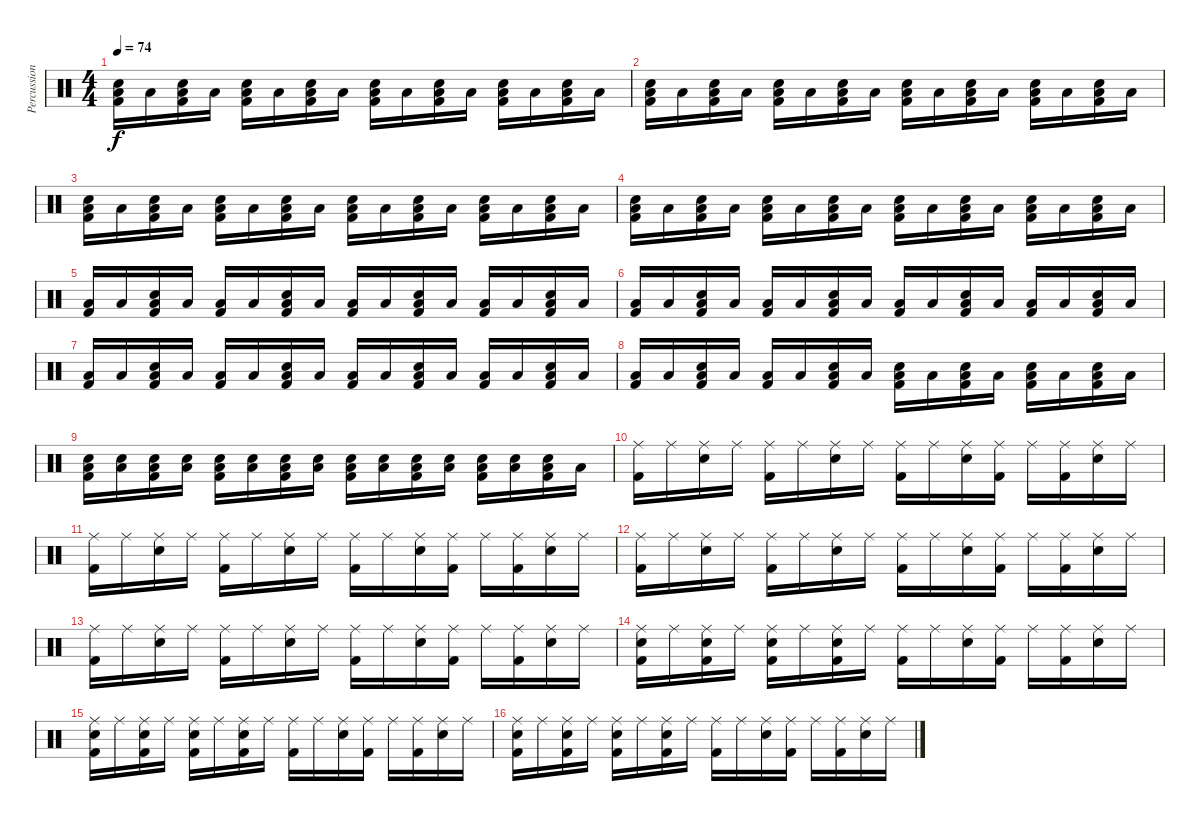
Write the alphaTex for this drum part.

\track ("Percussion" "Percussion") {instrument percussion}
\staff {score}
\articulation defaults
\ts (4 4)
\tempo 74
\clef neutral
\ks c
("Low Floor Tom (hit)" "Kick (hit) 2" "Electric Snare (hit)").16{dy f} "Low Floor Tom (hit)".16 ("Low Floor Tom (hit)" "Kick (hit) 2" "Electric Snare (hit)").16 "Low Floor Tom (hit)".16 ("Low Floor Tom (hit)" "Kick (hit) 2" "Electric Snare (hit)").16 "Low Floor Tom (hit)".16 ("Low Floor Tom (hit)" "Kick (hit) 2" "Electric Snare (hit)").16 "Low Floor Tom (hit)".16 ("Low Floor Tom (hit)" "Kick (hit) 2" "Electric Snare (hit)").16 "Low Floor Tom (hit)".16 ("Low Floor Tom (hit)" "Kick (hit) 2" "Electric Snare (hit)").16 "Low Floor Tom (hit)".16 ("Low Floor Tom (hit)" "Kick (hit) 2" "Electric Snare (hit)").16 "Low Floor Tom (hit)".16 ("Low Floor Tom (hit)" "Kick (hit) 2" "Electric Snare (hit)").16 "Low Floor Tom (hit)".16 |
("Low Floor Tom (hit)" "Kick (hit) 2" "Electric Snare (hit)").16 "Low Floor Tom (hit)".16 ("Low Floor Tom (hit)" "Kick (hit) 2" "Electric Snare (hit)").16 "Low Floor Tom (hit)".16 ("Low Floor Tom (hit)" "Kick (hit) 2" "Electric Snare (hit)").16 "Low Floor Tom (hit)".16 ("Low Floor Tom (hit)" "Kick (hit) 2" "Electric Snare (hit)").16 "Low Floor Tom (hit)".16 ("Low Floor Tom (hit)" "Kick (hit) 2" "Electric Snare (hit)").16 "Low Floor Tom (hit)".16 ("Low Floor Tom (hit)" "Kick (hit) 2" "Electric Snare (hit)").16 "Low Floor Tom (hit)".16 ("Low Floor Tom (hit)" "Kick (hit) 2" "Electric Snare (hit)").16 "Low Floor Tom (hit)".16 ("Low Floor Tom (hit)" "Kick (hit) 2" "Electric Snare (hit)").16 "Low Floor Tom (hit)".16 |
("Low Floor Tom (hit)" "Kick (hit) 2" "Electric Snare (hit)").16 "Low Floor Tom (hit)".16 ("Low Floor Tom (hit)" "Kick (hit) 2" "Electric Snare (hit)").16 "Low Floor Tom (hit)".16 ("Low Floor Tom (hit)" "Kick (hit) 2" "Electric Snare (hit)").16 "Low Floor Tom (hit)".16 ("Low Floor Tom (hit)" "Kick (hit) 2" "Electric Snare (hit)").16 "Low Floor Tom (hit)".16 ("Low Floor Tom (hit)" "Kick (hit) 2" "Electric Snare (hit)").16 "Low Floor Tom (hit)".16 ("Low Floor Tom (hit)" "Kick (hit) 2" "Electric Snare (hit)").16 "Low Floor Tom (hit)".16 ("Low Floor Tom (hit)" "Kick (hit) 2" "Electric Snare (hit)").16 "Low Floor Tom (hit)".16 ("Low Floor Tom (hit)" "Kick (hit) 2" "Electric Snare (hit)").16 "Low Floor Tom (hit)".16 |
("Low Floor Tom (hit)" "Kick (hit) 2" "Electric Snare (hit)").16 "Low Floor Tom (hit)".16 ("Low Floor Tom (hit)" "Kick (hit) 2" "Electric Snare (hit)").16 "Low Floor Tom (hit)".16 ("Low Floor Tom (hit)" "Kick (hit) 2" "Electric Snare (hit)").16 "Low Floor Tom (hit)".16 ("Low Floor Tom (hit)" "Kick (hit) 2" "Electric Snare (hit)").16 "Low Floor Tom (hit)".16 ("Low Floor Tom (hit)" "Kick (hit) 2" "Electric Snare (hit)").16 "Low Floor Tom (hit)".16 ("Low Floor Tom (hit)" "Kick (hit) 2" "Electric Snare (hit)").16 "Low Floor Tom (hit)".16 ("Low Floor Tom (hit)" "Kick (hit) 2" "Electric Snare (hit)").16 "Low Floor Tom (hit)".16 ("Low Floor Tom (hit)" "Kick (hit) 2" "Electric Snare (hit)").16 "Low Floor Tom (hit)".16 |
("Low Floor Tom (hit)" "Kick (hit) 2").16 "Low Floor Tom (hit)".16 ("Low Floor Tom (hit)" "Kick (hit) 2" "Electric Snare (hit)").16 "Low Floor Tom (hit)".16 ("Low Floor Tom (hit)" "Kick (hit) 2").16 "Low Floor Tom (hit)".16 ("Low Floor Tom (hit)" "Kick (hit) 2" "Electric Snare (hit)").16 "Low Floor Tom (hit)".16 ("Low Floor Tom (hit)" "Kick (hit) 2").16 "Low Floor Tom (hit)".16 ("Low Floor Tom (hit)" "Kick (hit) 2" "Electric Snare (hit)").16 "Low Floor Tom (hit)".16 ("Low Floor Tom (hit)" "Kick (hit) 2").16 "Low Floor Tom (hit)".16 ("Low Floor Tom (hit)" "Kick (hit) 2" "Electric Snare (hit)").16 "Low Floor Tom (hit)".16 |
("Low Floor Tom (hit)" "Kick (hit) 2").16 "Low Floor Tom (hit)".16 ("Low Floor Tom (hit)" "Kick (hit) 2" "Electric Snare (hit)").16 "Low Floor Tom (hit)".16 ("Low Floor Tom (hit)" "Kick (hit) 2").16 "Low Floor Tom (hit)".16 ("Low Floor Tom (hit)" "Kick (hit) 2" "Electric Snare (hit)").16 "Low Floor Tom (hit)".16 ("Low Floor Tom (hit)" "Kick (hit) 2").16 "Low Floor Tom (hit)".16 ("Low Floor Tom (hit)" "Kick (hit) 2" "Electric Snare (hit)").16 "Low Floor Tom (hit)".16 ("Low Floor Tom (hit)" "Kick (hit) 2").16 "Low Floor Tom (hit)".16 ("Low Floor Tom (hit)" "Kick (hit) 2" "Electric Snare (hit)").16 "Low Floor Tom (hit)".16 |
("Low Floor Tom (hit)" "Kick (hit) 2").16 "Low Floor Tom (hit)".16 ("Low Floor Tom (hit)" "Kick (hit) 2" "Electric Snare (hit)").16 "Low Floor Tom (hit)".16 ("Low Floor Tom (hit)" "Kick (hit) 2").16 "Low Floor Tom (hit)".16 ("Low Floor Tom (hit)" "Kick (hit) 2" "Electric Snare (hit)").16 "Low Floor Tom (hit)".16 ("Low Floor Tom (hit)" "Kick (hit) 2").16 "Low Floor Tom (hit)".16 ("Low Floor Tom (hit)" "Kick (hit) 2" "Electric Snare (hit)").16 "Low Floor Tom (hit)".16 ("Low Floor Tom (hit)" "Kick (hit) 2").16 "Low Floor Tom (hit)".16 ("Low Floor Tom (hit)" "Kick (hit) 2" "Electric Snare (hit)").16 "Low Floor Tom (hit)".16 |
("Low Floor Tom (hit)" "Kick (hit) 2").16 "Low Floor Tom (hit)".16 ("Low Floor Tom (hit)" "Kick (hit) 2" "Electric Snare (hit)").16 "Low Floor Tom (hit)".16 ("Low Floor Tom (hit)" "Kick (hit) 2").16 "Low Floor Tom (hit)".16 ("Low Floor Tom (hit)" "Kick (hit) 2" "Electric Snare (hit)").16 "Low Floor Tom (hit)".16 ("Low Floor Tom (hit)" "Kick (hit) 2" "Electric Snare (hit)").16 "Low Floor Tom (hit)".16 ("Low Floor Tom (hit)" "Kick (hit) 2" "Electric Snare (hit)").16 "Low Floor Tom (hit)".16 ("Low Floor Tom (hit)" "Kick (hit) 2" "Electric Snare (hit)").16 "Low Floor Tom (hit)".16 ("Low Floor Tom (hit)" "Kick (hit) 2" "Electric Snare (hit)").16 "Low Floor Tom (hit)".16 |
("Low Floor Tom (hit)" "Kick (hit) 2" "Electric Snare (hit)").16 ("Low Floor Tom (hit)" "Electric Snare (hit)").16 ("Low Floor Tom (hit)" "Kick (hit) 2" "Electric Snare (hit)").16 ("Low Floor Tom (hit)" "Electric Snare (hit)").16 ("Low Floor Tom (hit)" "Kick (hit) 2" "Electric Snare (hit)").16 ("Low Floor Tom (hit)" "Electric Snare (hit)").16 ("Low Floor Tom (hit)" "Kick (hit) 2" "Electric Snare (hit)").16 ("Low Floor Tom (hit)" "Electric Snare (hit)").16 ("Low Floor Tom (hit)" "Kick (hit) 2" "Electric Snare (hit)").16 ("Low Floor Tom (hit)" "Electric Snare (hit)").16 ("Low Floor Tom (hit)" "Kick (hit) 2" "Electric Snare (hit)").16 ("Low Floor Tom (hit)" "Electric Snare (hit)").16 ("Low Floor Tom (hit)" "Kick (hit) 2" "Electric Snare (hit)").16 ("Low Floor Tom (hit)" "Electric Snare (hit)").16 ("Low Floor Tom (hit)" "Kick (hit) 2" "Electric Snare (hit)").16 "Low Floor Tom (hit)".16 |
("Ride (middle)" "Kick (hit) 2").16 "Ride (middle)".16 ("Ride (middle)" "Electric Snare (hit)").16 "Ride (middle)".16 ("Ride (middle)" "Kick (hit) 2").16 "Ride (middle)".16 ("Ride (middle)" "Electric Snare (hit)").16 "Ride (middle)".16 ("Ride (middle)" "Kick (hit) 2").16 "Ride (middle)".16 ("Ride (middle)" "Electric Snare (hit)").16 ("Ride (middle)" "Kick (hit) 2").16 "Ride (middle)".16 ("Ride (middle)" "Kick (hit) 2").16 ("Ride (middle)" "Electric Snare (hit)").16 "Ride (middle)".16 |
("Ride (middle)" "Kick (hit) 2").16 "Ride (middle)".16 ("Ride (middle)" "Electric Snare (hit)").16 "Ride (middle)".16 ("Ride (middle)" "Kick (hit) 2").16 "Ride (middle)".16 ("Ride (middle)" "Electric Snare (hit)").16 "Ride (middle)".16 ("Ride (middle)" "Kick (hit) 2").16 "Ride (middle)".16 ("Ride (middle)" "Electric Snare (hit)").16 ("Ride (middle)" "Kick (hit) 2").16 "Ride (middle)".16 ("Ride (middle)" "Kick (hit) 2").16 ("Ride (middle)" "Electric Snare (hit)").16 "Ride (middle)".16 |
("Ride (middle)" "Kick (hit) 2").16 "Ride (middle)".16 ("Ride (middle)" "Electric Snare (hit)").16 "Ride (middle)".16 ("Ride (middle)" "Kick (hit) 2").16 "Ride (middle)".16 ("Ride (middle)" "Electric Snare (hit)").16 "Ride (middle)".16 ("Ride (middle)" "Kick (hit) 2").16 "Ride (middle)".16 ("Ride (middle)" "Electric Snare (hit)").16 ("Ride (middle)" "Kick (hit) 2").16 "Ride (middle)".16 ("Ride (middle)" "Kick (hit) 2").16 ("Ride (middle)" "Electric Snare (hit)").16 "Ride (middle)".16 |
("Ride (middle)" "Kick (hit) 2").16 "Ride (middle)".16 ("Ride (middle)" "Electric Snare (hit)").16 "Ride (middle)".16 ("Ride (middle)" "Kick (hit) 2").16 "Ride (middle)".16 ("Ride (middle)" "Electric Snare (hit)").16 "Ride (middle)".16 ("Ride (middle)" "Kick (hit) 2").16 "Ride (middle)".16 ("Ride (middle)" "Electric Snare (hit)").16 ("Ride (middle)" "Kick (hit) 2").16 "Ride (middle)".16 ("Ride (middle)" "Kick (hit) 2").16 ("Ride (middle)" "Electric Snare (hit)").16 "Ride (middle)".16 |
("Ride (middle)" "Kick (hit) 2" "Electric Snare (hit)").16 "Ride (middle)".16 ("Ride (middle)" "Kick (hit) 2" "Electric Snare (hit)").16 "Ride (middle)".16 ("Ride (middle)" "Kick (hit) 2" "Electric Snare (hit)").16 "Ride (middle)".16 ("Ride (middle)" "Kick (hit) 2" "Electric Snare (hit)").16 "Ride (middle)".16 ("Ride (middle)" "Kick (hit) 2").16 "Ride (middle)".16 ("Ride (middle)" "Electric Snare (hit)").16 ("Ride (middle)" "Kick (hit) 2").16 "Ride (middle)".16 ("Ride (middle)" "Kick (hit) 2").16 ("Ride (middle)" "Electric Snare (hit)").16 "Ride (middle)".16 |
("Ride (middle)" "Kick (hit) 2" "Electric Snare (hit)").16 "Ride (middle)".16 ("Ride (middle)" "Kick (hit) 2" "Electric Snare (hit)").16 "Ride (middle)".16 ("Ride (middle)" "Kick (hit) 2" "Electric Snare (hit)").16 "Ride (middle)".16 ("Ride (middle)" "Kick (hit) 2" "Electric Snare (hit)").16 "Ride (middle)".16 ("Ride (middle)" "Kick (hit) 2").16 "Ride (middle)".16 ("Ride (middle)" "Electric Snare (hit)").16 ("Ride (middle)" "Kick (hit) 2").16 "Ride (middle)".16 ("Ride (middle)" "Kick (hit) 2").16 ("Ride (middle)" "Electric Snare (hit)").16 "Ride (middle)".16 |
("Ride (middle)" "Kick (hit) 2" "Electric Snare (hit)").16 "Ride (middle)".16 ("Ride (middle)" "Kick (hit) 2" "Electric Snare (hit)").16 "Ride (middle)".16 ("Ride (middle)" "Kick (hit) 2" "Electric Snare (hit)").16 "Ride (middle)".16 ("Ride (middle)" "Kick (hit) 2" "Electric Snare (hit)").16 "Ride (middle)".16 ("Ride (middle)" "Kick (hit) 2").16 "Ride (middle)".16 ("Ride (middle)" "Electric Snare (hit)").16 ("Ride (middle)" "Kick (hit) 2").16 "Ride (middle)".16 ("Ride (middle)" "Kick (hit) 2").16 ("Ride (middle)" "Electric Snare (hit)").16 "Ride (middle)".16
